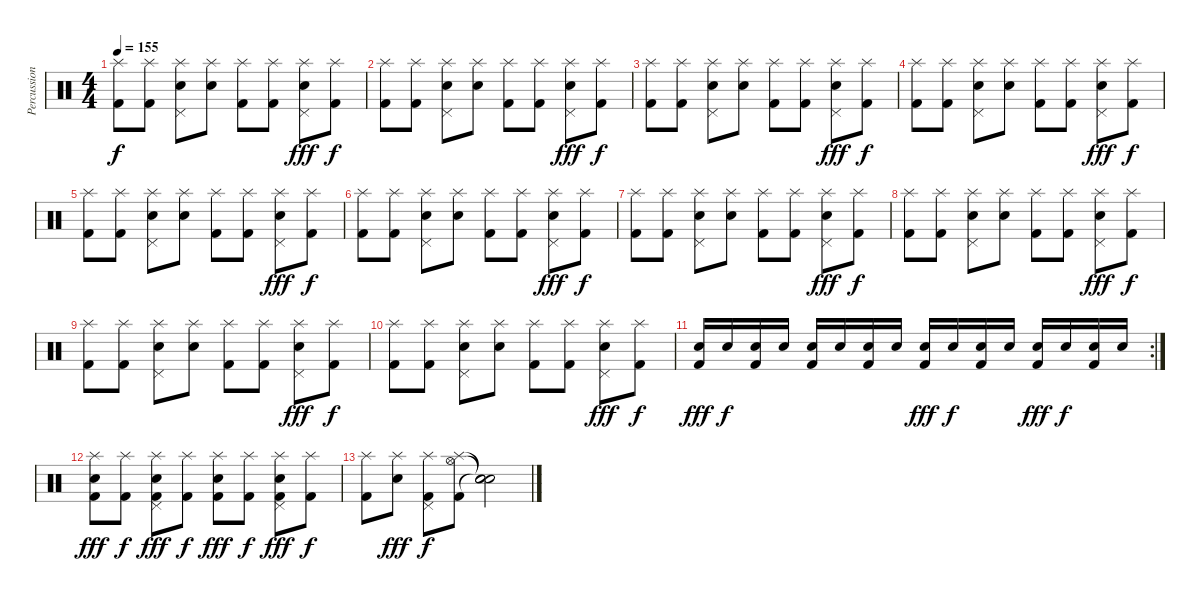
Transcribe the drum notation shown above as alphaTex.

\track ("Percussion" "Percussion") {instrument percussion}
\staff {score}
\articulation defaults
\ts (4 4)
\tempo 155
\clef neutral
\ks c
("Splash (hit)" "Kick (hit) 2").8{dy f} ("Splash (hit)" "Kick (hit) 2").8 ("Splash (hit)" "Pedal Hi-Hat (hit)" "Snare (hit) 2").8 ("Splash (hit)" "Snare (hit) 2").8 ("Splash (hit)" "Kick (hit) 2").8 ("Splash (hit)" "Kick (hit) 2").8 ("Splash (hit)" "Pedal Hi-Hat (hit)" "Snare (hit) 2").8{dy fff} ("Splash (hit)" "Kick (hit) 2").8{dy f} |
("Splash (hit)" "Kick (hit) 2").8 ("Splash (hit)" "Kick (hit) 2").8 ("Splash (hit)" "Pedal Hi-Hat (hit)" "Snare (hit) 2").8 ("Splash (hit)" "Snare (hit) 2").8 ("Splash (hit)" "Kick (hit) 2").8 ("Splash (hit)" "Kick (hit) 2").8 ("Splash (hit)" "Pedal Hi-Hat (hit)" "Snare (hit) 2").8{dy fff} ("Splash (hit)" "Kick (hit) 2").8{dy f} |
("Splash (hit)" "Kick (hit) 2").8 ("Splash (hit)" "Kick (hit) 2").8 ("Splash (hit)" "Pedal Hi-Hat (hit)" "Snare (hit) 2").8 ("Splash (hit)" "Snare (hit) 2").8 ("Splash (hit)" "Kick (hit) 2").8 ("Splash (hit)" "Kick (hit) 2").8 ("Splash (hit)" "Pedal Hi-Hat (hit)" "Snare (hit) 2").8{dy fff} ("Splash (hit)" "Kick (hit) 2").8{dy f} |
("Splash (hit)" "Kick (hit) 2").8 ("Splash (hit)" "Kick (hit) 2").8 ("Splash (hit)" "Pedal Hi-Hat (hit)" "Snare (hit) 2").8 ("Splash (hit)" "Snare (hit) 2").8 ("Splash (hit)" "Kick (hit) 2").8 ("Splash (hit)" "Kick (hit) 2").8 ("Splash (hit)" "Pedal Hi-Hat (hit)" "Snare (hit) 2").8{dy fff} ("Splash (hit)" "Kick (hit) 2").8{dy f} |
("Splash (hit)" "Kick (hit) 2").8 ("Splash (hit)" "Kick (hit) 2").8 ("Splash (hit)" "Pedal Hi-Hat (hit)" "Snare (hit) 2").8 ("Splash (hit)" "Snare (hit) 2").8 ("Splash (hit)" "Kick (hit) 2").8 ("Splash (hit)" "Kick (hit) 2").8 ("Splash (hit)" "Pedal Hi-Hat (hit)" "Snare (hit) 2").8{dy fff} ("Splash (hit)" "Kick (hit) 2").8{dy f} |
("Splash (hit)" "Kick (hit) 2").8 ("Splash (hit)" "Kick (hit) 2").8 ("Splash (hit)" "Pedal Hi-Hat (hit)" "Snare (hit) 2").8 ("Splash (hit)" "Snare (hit) 2").8 ("Splash (hit)" "Kick (hit) 2").8 ("Splash (hit)" "Kick (hit) 2").8 ("Splash (hit)" "Pedal Hi-Hat (hit)" "Snare (hit) 2").8{dy fff} ("Splash (hit)" "Kick (hit) 2").8{dy f} |
("Splash (hit)" "Kick (hit) 2").8 ("Splash (hit)" "Kick (hit) 2").8 ("Splash (hit)" "Pedal Hi-Hat (hit)" "Snare (hit) 2").8 ("Splash (hit)" "Snare (hit) 2").8 ("Splash (hit)" "Kick (hit) 2").8 ("Splash (hit)" "Kick (hit) 2").8 ("Splash (hit)" "Pedal Hi-Hat (hit)" "Snare (hit) 2").8{dy fff} ("Splash (hit)" "Kick (hit) 2").8{dy f} |
("Splash (hit)" "Kick (hit) 2").8 ("Splash (hit)" "Kick (hit) 2").8 ("Splash (hit)" "Pedal Hi-Hat (hit)" "Snare (hit) 2").8 ("Splash (hit)" "Snare (hit) 2").8 ("Splash (hit)" "Kick (hit) 2").8 ("Splash (hit)" "Kick (hit) 2").8 ("Splash (hit)" "Pedal Hi-Hat (hit)" "Snare (hit) 2").8{dy fff} ("Splash (hit)" "Kick (hit) 2").8{dy f} |
("Splash (hit)" "Kick (hit) 2").8 ("Splash (hit)" "Kick (hit) 2").8 ("Splash (hit)" "Pedal Hi-Hat (hit)" "Snare (hit) 2").8 ("Splash (hit)" "Snare (hit) 2").8 ("Splash (hit)" "Kick (hit) 2").8 ("Splash (hit)" "Kick (hit) 2").8 ("Splash (hit)" "Pedal Hi-Hat (hit)" "Snare (hit) 2").8{dy fff} ("Splash (hit)" "Kick (hit) 2").8{dy f} |
("Splash (hit)" "Kick (hit) 2").8 ("Splash (hit)" "Kick (hit) 2").8 ("Splash (hit)" "Pedal Hi-Hat (hit)" "Snare (hit) 2").8 ("Splash (hit)" "Snare (hit) 2").8 ("Splash (hit)" "Kick (hit) 2").8 ("Splash (hit)" "Kick (hit) 2").8 ("Splash (hit)" "Pedal Hi-Hat (hit)" "Snare (hit) 2").8{dy fff} ("Splash (hit)" "Kick (hit) 2").8{dy f} |
\rc 2
("Snare (hit) 2" "Kick (hit) 2").16{dy fff} "Snare (hit) 2".16{dy f} ("Snare (hit) 2" "Kick (hit) 2").16 "Snare (hit) 2".16 ("Snare (hit) 2" "Kick (hit) 2").16 "Snare (hit) 2".16 ("Snare (hit) 2" "Kick (hit) 2").16 "Snare (hit) 2".16 ("Snare (hit) 2" "Kick (hit) 2").16{dy fff} "Snare (hit) 2".16{dy f} ("Snare (hit) 2" "Kick (hit) 2").16 "Snare (hit) 2".16 ("Snare (hit) 2" "Kick (hit) 2").16{dy fff} "Snare (hit) 2".16{dy f} ("Snare (hit) 2" "Kick (hit) 2").16 "Snare (hit) 2".16 |
("Splash (hit)" "Snare (hit) 2" "Kick (hit) 2").8{dy fff} ("Splash (hit)" "Kick (hit) 2").8{dy f} ("Splash (hit)" "Pedal Hi-Hat (hit)" "Snare (hit) 2" "Kick (hit) 2").8{dy fff} ("Splash (hit)" "Kick (hit) 2").8{dy f} ("Splash (hit)" "Snare (hit) 2" "Kick (hit) 2").8{dy fff} ("Splash (hit)" "Kick (hit) 2").8{dy f} ("Splash (hit)" "Pedal Hi-Hat (hit)" "Snare (hit) 2" "Kick (hit) 2").8{dy fff} ("Splash (hit)" "Kick (hit) 2").8{dy f} |
("Splash (hit)" "Kick (hit) 2").8 ("Splash (hit)" "Snare (hit) 2").8{dy fff} ("Splash (hit)" "Pedal Hi-Hat (hit)" "Kick (hit) 2").8{dy f} ("Splash (hit)" "Hi-Hat (open)" "Kick (hit) 2").8 ("Snare (hit)"{t} "Snare (hit)"{t} "Snare (hit)"{t}).2
